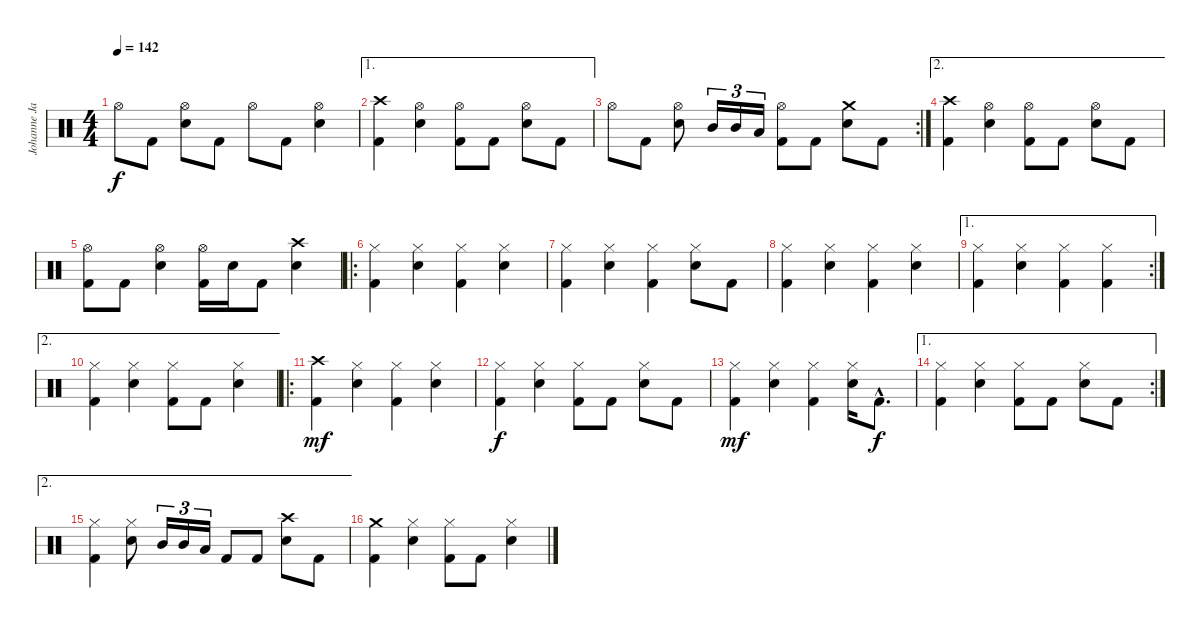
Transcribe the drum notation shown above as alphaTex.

\track ("Johanne James" "Johanne Ja") {instrument percussion}
\staff {score}
\articulation defaults
\ts (4 4)
\tempo 142
\clef neutral
\ks c "Hi-Hat (open)".8{dy f} "Kick (hit) 2".8
("Hi-Hat (open)" "Snare (hit) 2").8 "Kick (hit) 2".8 "Hi-Hat (open)".8 "Kick (hit) 2".8 ("Hi-Hat (open)" "Snare (hit) 2").4 |
\ae 1
("Crash high (hit)" "Kick (hit) 2").4 ("Hi-Hat (open)" "Snare (hit) 2").4 ("Hi-Hat (open)" "Kick (hit) 2").8 "Kick (hit) 2".8 ("Hi-Hat (open)" "Snare (hit) 2").8 "Kick (hit) 2".8 |
\rc 2 "Hi-Hat (open)".8 "Kick (hit) 2".8
("Hi-Hat (open)" "Snare (hit) 2").8 "Mid Tom (hit)".16{tu (3 2)} "Mid Tom (hit)".16{tu (3 2)} "Low Tom (hit)".16{tu (3 2)} ("Hi-Hat (open)" "Kick (hit) 2").8 "Kick (hit) 2".8 ("Crash medium (hit)" "Snare (hit) 2").8 "Kick (hit) 2".8 |
\ae 2
("Crash high (hit)" "Kick (hit) 2").4 ("Hi-Hat (open)" "Snare (hit) 2").4 ("Hi-Hat (open)" "Kick (hit) 2").8 "Kick (hit) 2".8 ("Hi-Hat (open)" "Snare (hit) 2").8 "Kick (hit) 2".8 |
("Hi-Hat (open)" "Kick (hit) 2").8 "Kick (hit) 2".8 ("Hi-Hat (open)" "Snare (hit) 2").4 ("Hi-Hat (open)" "Kick (hit) 2").16 "Snare (hit) 2".16 "Kick (hit) 2".8 ("Crash high (hit)" "Snare (hit) 2").4 |
\ro
("Hi-Hat (closed)" "Kick (hit) 2").4 ("Hi-Hat (closed)" "Snare (hit) 2").4 ("Hi-Hat (closed)" "Kick (hit) 2").4 ("Hi-Hat (closed)" "Snare (hit) 2").4 |
("Hi-Hat (closed)" "Kick (hit) 2").4 ("Hi-Hat (closed)" "Snare (hit) 2").4 ("Hi-Hat (closed)" "Kick (hit) 2").4 ("Hi-Hat (closed)" "Snare (hit) 2").8 "Kick (hit) 2".8 |
("Hi-Hat (closed)" "Kick (hit) 2").4 ("Hi-Hat (closed)" "Snare (hit) 2").4 ("Hi-Hat (closed)" "Kick (hit) 2").4 ("Hi-Hat (closed)" "Snare (hit) 2").4 |
\ae 1
\rc 2
("Hi-Hat (closed)" "Kick (hit) 2").4 ("Hi-Hat (closed)" "Snare (hit) 2").4 ("Hi-Hat (closed)" "Kick (hit) 2").4 ("Hi-Hat (closed)" "Kick (hit) 2").4 |
\ae 2
("Hi-Hat (closed)" "Kick (hit) 2").4 ("Hi-Hat (closed)" "Snare (hit) 2").4 ("Hi-Hat (closed)" "Kick (hit) 2").8 "Kick (hit) 2".8 ("Hi-Hat (closed)" "Snare (hit) 2").4 |
\ro
("Crash high (hit)" "Kick (hit) 2").4{dy mf} ("Hi-Hat (closed)" "Snare (hit) 2").4 ("Hi-Hat (closed)" "Kick (hit) 2").4 ("Hi-Hat (closed)" "Snare (hit) 2").4 |
("Hi-Hat (closed)" "Kick (hit) 2").4{dy f} ("Hi-Hat (closed)" "Snare (hit) 2").4 ("Hi-Hat (closed)" "Kick (hit) 2").8 "Kick (hit) 2".8 ("Hi-Hat (closed)" "Snare (hit) 2").8 "Kick (hit) 2".8 |
("Hi-Hat (closed)" "Kick (hit) 2").4{dy mf} ("Hi-Hat (closed)" "Snare (hit) 2").4 ("Hi-Hat (closed)" "Kick (hit) 2").4 ("Hi-Hat (closed)" "Snare (hit) 2").16 "Kick (hit) 2"{hac}.8{d dy f} |
\ae 1
\rc 2
("Hi-Hat (closed)" "Kick (hit) 2").4 ("Hi-Hat (closed)" "Snare (hit) 2").4 ("Hi-Hat (closed)" "Kick (hit) 2").8 "Kick (hit) 2".8 ("Hi-Hat (closed)" "Snare (hit) 2").8 "Kick (hit) 2".8 |
\ae 2
("Hi-Hat (closed)" "Kick (hit) 2").4 ("Hi-Hat (closed)" "Snare (hit) 2").8 "Mid Tom (hit)".16{tu (3 2)} "Mid Tom (hit)".16{tu (3 2)} "Low Tom (hit)".16{tu (3 2)} "Kick (hit) 2".8 "Kick (hit) 2".8 ("Crash high (hit)" "Snare (hit) 2").8 "Kick (hit) 2".8 |
("Crash medium (hit)" "Kick (hit) 2").4 ("Hi-Hat (closed)" "Snare (hit) 2").4 ("Hi-Hat (closed)" "Kick (hit) 2").8 "Kick (hit) 2".8 ("Hi-Hat (closed)" "Snare (hit) 2").4
